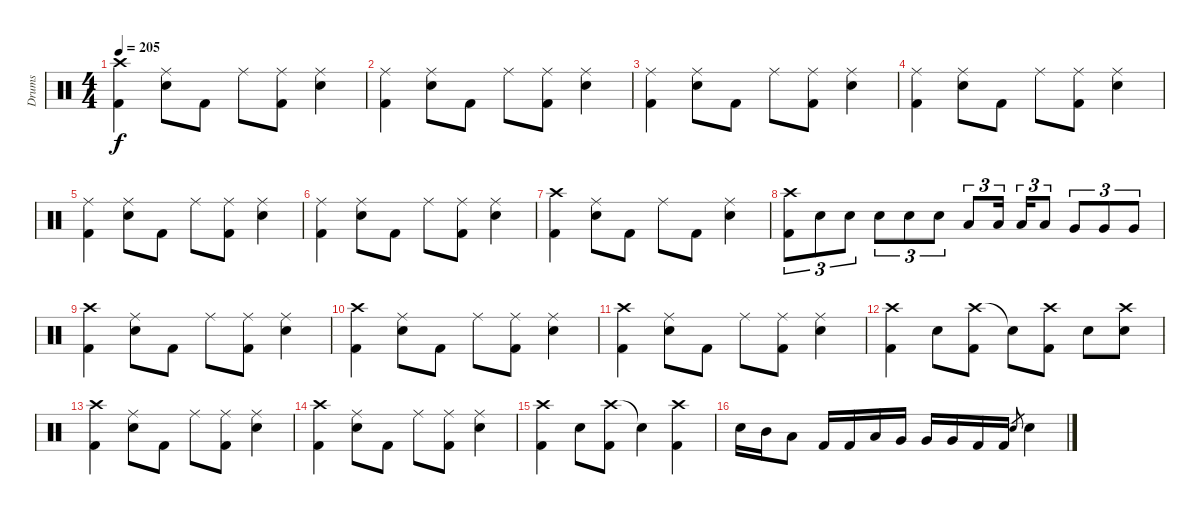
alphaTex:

\track ("Drums" "Drums") {instrument percussion}
\staff {score}
\articulation defaults
\ts (4 4)
\tempo 205
\clef neutral
\ks c
("Crash high (hit)" "Kick (hit) 2").4{dy f} ("Ride (middle)" "Electric Snare (hit)").8 "Kick (hit) 2".8 "Ride (middle)".8 ("Ride (middle)" "Kick (hit) 2").8 ("Ride (middle)" "Electric Snare (hit)").4 |
("Ride (middle)" "Kick (hit) 2").4 ("Ride (middle)" "Electric Snare (hit)").8 "Kick (hit) 2".8 "Ride (middle)".8 ("Ride (middle)" "Kick (hit) 2").8 ("Ride (middle)" "Electric Snare (hit)").4 |
("Ride (middle)" "Kick (hit) 2").4 ("Ride (middle)" "Electric Snare (hit)").8 "Kick (hit) 2".8 "Ride (middle)".8 ("Ride (middle)" "Kick (hit) 2").8 ("Ride (middle)" "Electric Snare (hit)").4 |
("Ride (middle)" "Kick (hit) 2").4 ("Ride (middle)" "Electric Snare (hit)").8 "Kick (hit) 2".8 "Ride (middle)".8 ("Ride (middle)" "Kick (hit) 2").8 ("Ride (middle)" "Electric Snare (hit)").4 |
("Ride (middle)" "Kick (hit) 2").4 ("Ride (middle)" "Electric Snare (hit)").8 "Kick (hit) 2".8 "Ride (middle)".8 ("Ride (middle)" "Kick (hit) 2").8 ("Ride (middle)" "Electric Snare (hit)").4 |
("Ride (middle)" "Kick (hit) 2").4 ("Ride (middle)" "Electric Snare (hit)").8 "Kick (hit) 2".8 "Ride (middle)".8 ("Ride (middle)" "Kick (hit) 2").8 ("Ride (middle)" "Electric Snare (hit)").4 |
("Crash high (hit)" "Kick (hit) 2").4 ("Ride (middle)" "Electric Snare (hit)").8 "Kick (hit) 2".8 "Ride (middle)".8 "Kick (hit) 2".8 ("Ride (middle)" "Electric Snare (hit)").4 |
("Crash high (hit)" "Kick (hit) 2").8{tu (3 2)} "Electric Snare (hit)".8{tu (3 2)} "Electric Snare (hit)".8{tu (3 2)} "Electric Snare (hit)".8{tu (3 2)} "Electric Snare (hit)".8{tu (3 2)} "Electric Snare (hit)".8{tu (3 2)} "Low Tom (hit)".8{tu (3 2)} "Low Tom (hit)".16{tu (3 2) beam splitsecondary} "Low Tom (hit)".16{tu (3 2)} "Low Tom (hit)".8{tu (3 2)} "Very Low Tom (hit)".8{tu (3 2)} "Very Low Tom (hit)".8{tu (3 2)} "Very Low Tom (hit)".8{tu (3 2)} |
("Crash high (hit)" "Kick (hit) 2").4 ("Ride (middle)" "Electric Snare (hit)").8 "Kick (hit) 2".8 "Ride (middle)".8 ("Ride (middle)" "Kick (hit) 2").8 ("Ride (middle)" "Electric Snare (hit)").4 |
("Crash high (hit)" "Kick (hit) 2").4 ("Ride (middle)" "Electric Snare (hit)").8 "Kick (hit) 2".8 "Ride (middle)".8 ("Ride (middle)" "Kick (hit) 2").8 ("Ride (middle)" "Electric Snare (hit)").4 |
("Crash high (hit)" "Kick (hit) 2").4 ("Ride (middle)" "Electric Snare (hit)").8 "Kick (hit) 2".8 "Ride (middle)".8 ("Ride (middle)" "Kick (hit) 2").8 ("Ride (middle)" "Electric Snare (hit)").4 |
("Crash high (hit)" "Kick (hit) 2").4 "Electric Snare (hit)".8 ("Crash high (hit)" "Kick (hit) 2").8 "Snare (hit)"{t}.8 ("Crash high (hit)" "Kick (hit) 2").8 "Electric Snare (hit)".8 ("Crash high (hit)" "Electric Snare (hit)").8 |
("Crash high (hit)" "Kick (hit) 2").4 ("Ride (middle)" "Electric Snare (hit)").8 "Kick (hit) 2".8 "Ride (middle)".8 ("Ride (middle)" "Kick (hit) 2").8 ("Ride (middle)" "Electric Snare (hit)").4 |
("Crash high (hit)" "Kick (hit) 2").4 ("Ride (middle)" "Electric Snare (hit)").8 "Kick (hit) 2".8 "Ride (middle)".8 ("Ride (middle)" "Kick (hit) 2").8 ("Ride (middle)" "Electric Snare (hit)").4 |
("Crash high (hit)" "Kick (hit) 2").4 "Electric Snare (hit)".8 ("Crash high (hit)" "Kick (hit) 2").8 "Snare (hit)"{t}.4 ("Crash high (hit)" "Kick (hit) 2").4 |
"Electric Snare (hit)".16 "Mid Tom (hit)".16 "Low Tom (hit)".8 "Kick (hit) 2".16 "Kick (hit) 2".16 "Low Tom (hit)".16 "Very Low Tom (hit)".16 "Very Low Tom (hit)".16 "Very Low Tom (hit)".16 "Kick (hit) 2".16 "Kick (hit) 2".16 "Electric Snare (hit)".8{gr} "Electric Snare (hit)".4
